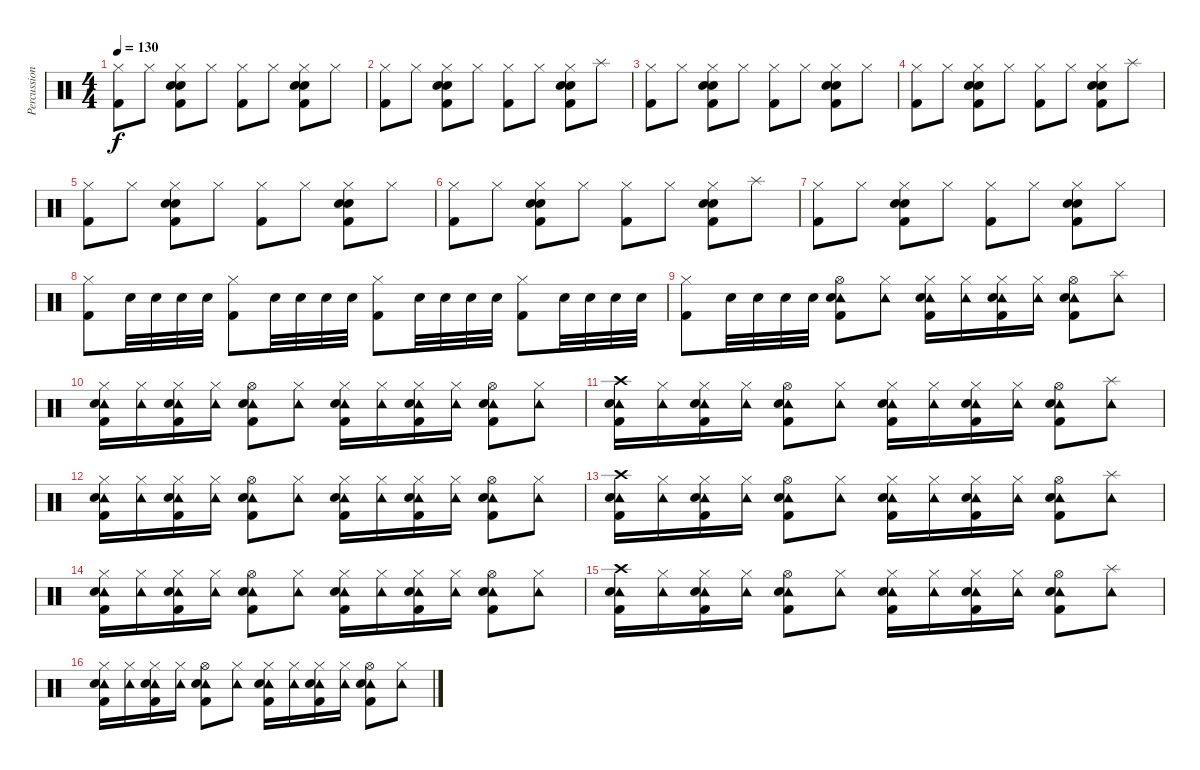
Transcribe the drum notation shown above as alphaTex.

\track ("Percussion" "Percussion") {instrument percussion}
\staff {score}
\articulation defaults
\ts (4 4)
\tempo 130
\clef neutral
\ks c
("Hi-Hat (closed)" "Kick (hit) 2").8{dy f volume 13} "Hi-Hat (closed)".8 ("Hi-Hat (closed)" "Electric Snare (hit)" "Electric Snare (hit)" "Kick (hit) 2").8 "Hi-Hat (closed)".8 ("Hi-Hat (closed)" "Kick (hit) 2").8 "Hi-Hat (closed)".8 ("Hi-Hat (closed)" "Electric Snare (hit)" "Electric Snare (hit)" "Kick (hit) 2").8 "Hi-Hat (closed)".8 |
("Hi-Hat (closed)" "Kick (hit) 2").8 "Hi-Hat (closed)".8 ("Hi-Hat (closed)" "Electric Snare (hit)" "Electric Snare (hit)" "Kick (hit) 2").8 "Hi-Hat (closed)".8 ("Hi-Hat (closed)" "Kick (hit) 2").8 "Hi-Hat (closed)".8 ("Hi-Hat (closed)" "Electric Snare (hit)" "Electric Snare (hit)" "Kick (hit) 2").8 "Splash (hit)".8 |
("Hi-Hat (closed)" "Kick (hit) 2").8 "Hi-Hat (closed)".8 ("Hi-Hat (closed)" "Electric Snare (hit)" "Electric Snare (hit)" "Kick (hit) 2").8 "Hi-Hat (closed)".8 ("Hi-Hat (closed)" "Kick (hit) 2").8 "Hi-Hat (closed)".8 ("Hi-Hat (closed)" "Electric Snare (hit)" "Electric Snare (hit)" "Kick (hit) 2").8 "Hi-Hat (closed)".8 |
("Hi-Hat (closed)" "Kick (hit) 2").8 "Hi-Hat (closed)".8 ("Hi-Hat (closed)" "Electric Snare (hit)" "Electric Snare (hit)" "Kick (hit) 2").8 "Hi-Hat (closed)".8 ("Hi-Hat (closed)" "Kick (hit) 2").8 "Hi-Hat (closed)".8 ("Hi-Hat (closed)" "Electric Snare (hit)" "Electric Snare (hit)" "Kick (hit) 2").8 "Splash (hit)".8 |
("Hi-Hat (closed)" "Kick (hit) 2").8 "Hi-Hat (closed)".8 ("Hi-Hat (closed)" "Electric Snare (hit)" "Electric Snare (hit)" "Kick (hit) 2").8 "Hi-Hat (closed)".8 ("Hi-Hat (closed)" "Kick (hit) 2").8 "Hi-Hat (closed)".8 ("Hi-Hat (closed)" "Electric Snare (hit)" "Electric Snare (hit)" "Kick (hit) 2").8 "Hi-Hat (closed)".8 |
("Hi-Hat (closed)" "Kick (hit) 2").8 "Hi-Hat (closed)".8 ("Hi-Hat (closed)" "Electric Snare (hit)" "Electric Snare (hit)" "Kick (hit) 2").8 "Hi-Hat (closed)".8 ("Hi-Hat (closed)" "Kick (hit) 2").8 "Hi-Hat (closed)".8 ("Hi-Hat (closed)" "Electric Snare (hit)" "Electric Snare (hit)" "Kick (hit) 2").8 "Splash (hit)".8 |
("Hi-Hat (closed)" "Kick (hit) 2").8 "Hi-Hat (closed)".8 ("Hi-Hat (closed)" "Electric Snare (hit)" "Electric Snare (hit)" "Kick (hit) 2").8 "Hi-Hat (closed)".8 ("Hi-Hat (closed)" "Kick (hit) 2").8 "Hi-Hat (closed)".8 ("Hi-Hat (closed)" "Electric Snare (hit)" "Electric Snare (hit)" "Kick (hit) 2").8 "Hi-Hat (closed)".8 |
("Hi-Hat (closed)" "Kick (hit) 2").8 "Snare (hit) 2".32 "Snare (hit) 2".32 "Snare (hit) 2".32 "Snare (hit) 2".32 ("Hi-Hat (closed)" "Kick (hit) 2").8 "Snare (hit) 2".32 "Snare (hit) 2".32 "Snare (hit) 2".32 "Snare (hit) 2".32 ("Hi-Hat (closed)" "Kick (hit) 2").8 "Snare (hit) 2".32 "Snare (hit) 2".32 "Snare (hit) 2".32 "Snare (hit) 2".32 ("Hi-Hat (closed)" "Kick (hit) 2").8 "Snare (hit) 2".32 "Snare (hit) 2".32 "Snare (hit) 2".32 "Snare (hit) 2".32 |
("Hi-Hat (closed)" "Kick (hit) 2").8 "Snare (hit) 2".32 "Snare (hit) 2".32 "Snare (hit) 2".32 "Snare (hit) 2".32 ("Hi-Hat (open)" "Tambourine (hit)" "Electric Snare (hit)" "Kick (hit) 2").8 ("Hi-Hat (closed)" "Tambourine (hit)").8 ("Hi-Hat (closed)" "Tambourine (hit)" "Electric Snare (hit)" "Kick (hit) 2").16 ("Hi-Hat (closed)" "Tambourine (hit)").16 ("Hi-Hat (closed)" "Tambourine (hit)" "Electric Snare (hit)" "Kick (hit) 2").16 ("Hi-Hat (closed)" "Tambourine (hit)").16 ("Hi-Hat (open)" "Tambourine (hit)" "Electric Snare (hit)" "Kick (hit) 2").8 ("Splash (hit)" "Tambourine (hit)").8 |
("Hi-Hat (closed)" "Tambourine (hit)" "Electric Snare (hit)" "Kick (hit) 2").16 ("Hi-Hat (closed)" "Tambourine (hit)").16 ("Hi-Hat (closed)" "Tambourine (hit)" "Electric Snare (hit)" "Kick (hit) 2").16 ("Hi-Hat (closed)" "Tambourine (hit)").16 ("Hi-Hat (open)" "Tambourine (hit)" "Electric Snare (hit)" "Kick (hit) 2").8 ("Hi-Hat (closed)" "Tambourine (hit)").8 ("Hi-Hat (closed)" "Tambourine (hit)" "Electric Snare (hit)" "Kick (hit) 2").16 ("Hi-Hat (closed)" "Tambourine (hit)").16 ("Hi-Hat (closed)" "Tambourine (hit)" "Electric Snare (hit)" "Kick (hit) 2").16 ("Hi-Hat (closed)" "Tambourine (hit)").16 ("Hi-Hat (open)" "Tambourine (hit)" "Electric Snare (hit)" "Kick (hit) 2").8 ("Hi-Hat (closed)" "Tambourine (hit)").8 |
("Crash high (hit)" "Tambourine (hit)" "Electric Snare (hit)" "Kick (hit) 2").16{volume 16} ("Hi-Hat (closed)" "Tambourine (hit)").16 ("Hi-Hat (closed)" "Tambourine (hit)" "Electric Snare (hit)" "Kick (hit) 2").16 ("Hi-Hat (closed)" "Tambourine (hit)").16 ("Hi-Hat (open)" "Tambourine (hit)" "Electric Snare (hit)" "Kick (hit) 2").8 ("Hi-Hat (closed)" "Tambourine (hit)").8 ("Hi-Hat (closed)" "Tambourine (hit)" "Electric Snare (hit)" "Kick (hit) 2").16 ("Hi-Hat (closed)" "Tambourine (hit)").16 ("Hi-Hat (closed)" "Tambourine (hit)" "Electric Snare (hit)" "Kick (hit) 2").16 ("Hi-Hat (closed)" "Tambourine (hit)").16 ("Hi-Hat (open)" "Tambourine (hit)" "Electric Snare (hit)" "Kick (hit) 2").8 ("Splash (hit)" "Tambourine (hit)").8 |
("Hi-Hat (closed)" "Tambourine (hit)" "Electric Snare (hit)" "Kick (hit) 2").16 ("Hi-Hat (closed)" "Tambourine (hit)").16 ("Hi-Hat (closed)" "Tambourine (hit)" "Electric Snare (hit)" "Kick (hit) 2").16 ("Hi-Hat (closed)" "Tambourine (hit)").16 ("Hi-Hat (open)" "Tambourine (hit)" "Electric Snare (hit)" "Kick (hit) 2").8 ("Hi-Hat (closed)" "Tambourine (hit)").8 ("Hi-Hat (closed)" "Tambourine (hit)" "Electric Snare (hit)" "Kick (hit) 2").16 ("Hi-Hat (closed)" "Tambourine (hit)").16 ("Hi-Hat (closed)" "Tambourine (hit)" "Electric Snare (hit)" "Kick (hit) 2").16 ("Hi-Hat (closed)" "Tambourine (hit)").16 ("Hi-Hat (open)" "Tambourine (hit)" "Electric Snare (hit)" "Kick (hit) 2").8 ("Hi-Hat (closed)" "Tambourine (hit)").8 |
("Crash high (hit)" "Tambourine (hit)" "Electric Snare (hit)" "Kick (hit) 2").16{volume 16} ("Hi-Hat (closed)" "Tambourine (hit)").16 ("Hi-Hat (closed)" "Tambourine (hit)" "Electric Snare (hit)" "Kick (hit) 2").16 ("Hi-Hat (closed)" "Tambourine (hit)").16 ("Hi-Hat (open)" "Tambourine (hit)" "Electric Snare (hit)" "Kick (hit) 2").8 ("Hi-Hat (closed)" "Tambourine (hit)").8 ("Hi-Hat (closed)" "Tambourine (hit)" "Electric Snare (hit)" "Kick (hit) 2").16 ("Hi-Hat (closed)" "Tambourine (hit)").16 ("Hi-Hat (closed)" "Tambourine (hit)" "Electric Snare (hit)" "Kick (hit) 2").16 ("Hi-Hat (closed)" "Tambourine (hit)").16 ("Hi-Hat (open)" "Tambourine (hit)" "Electric Snare (hit)" "Kick (hit) 2").8 ("Splash (hit)" "Tambourine (hit)").8 |
("Hi-Hat (closed)" "Tambourine (hit)" "Electric Snare (hit)" "Kick (hit) 2").16 ("Hi-Hat (closed)" "Tambourine (hit)").16 ("Hi-Hat (closed)" "Tambourine (hit)" "Electric Snare (hit)" "Kick (hit) 2").16 ("Hi-Hat (closed)" "Tambourine (hit)").16 ("Hi-Hat (open)" "Tambourine (hit)" "Electric Snare (hit)" "Kick (hit) 2").8 ("Hi-Hat (closed)" "Tambourine (hit)").8 ("Hi-Hat (closed)" "Tambourine (hit)" "Electric Snare (hit)" "Kick (hit) 2").16 ("Hi-Hat (closed)" "Tambourine (hit)").16 ("Hi-Hat (closed)" "Tambourine (hit)" "Electric Snare (hit)" "Kick (hit) 2").16 ("Hi-Hat (closed)" "Tambourine (hit)").16 ("Hi-Hat (open)" "Tambourine (hit)" "Electric Snare (hit)" "Kick (hit) 2").8 ("Hi-Hat (closed)" "Tambourine (hit)").8 |
("Crash high (hit)" "Tambourine (hit)" "Electric Snare (hit)" "Kick (hit) 2").16{volume 16} ("Hi-Hat (closed)" "Tambourine (hit)").16 ("Hi-Hat (closed)" "Tambourine (hit)" "Electric Snare (hit)" "Kick (hit) 2").16 ("Hi-Hat (closed)" "Tambourine (hit)").16 ("Hi-Hat (open)" "Tambourine (hit)" "Electric Snare (hit)" "Kick (hit) 2").8 ("Hi-Hat (closed)" "Tambourine (hit)").8 ("Hi-Hat (closed)" "Tambourine (hit)" "Electric Snare (hit)" "Kick (hit) 2").16 ("Hi-Hat (closed)" "Tambourine (hit)").16 ("Hi-Hat (closed)" "Tambourine (hit)" "Electric Snare (hit)" "Kick (hit) 2").16 ("Hi-Hat (closed)" "Tambourine (hit)").16 ("Hi-Hat (open)" "Tambourine (hit)" "Electric Snare (hit)" "Kick (hit) 2").8 ("Splash (hit)" "Tambourine (hit)").8 |
("Hi-Hat (closed)" "Tambourine (hit)" "Electric Snare (hit)" "Kick (hit) 2").16 ("Hi-Hat (closed)" "Tambourine (hit)").16 ("Hi-Hat (closed)" "Tambourine (hit)" "Electric Snare (hit)" "Kick (hit) 2").16 ("Hi-Hat (closed)" "Tambourine (hit)").16 ("Hi-Hat (open)" "Tambourine (hit)" "Electric Snare (hit)" "Kick (hit) 2").8 ("Hi-Hat (closed)" "Tambourine (hit)").8 ("Hi-Hat (closed)" "Tambourine (hit)" "Electric Snare (hit)" "Kick (hit) 2").16 ("Hi-Hat (closed)" "Tambourine (hit)").16 ("Hi-Hat (closed)" "Tambourine (hit)" "Electric Snare (hit)" "Kick (hit) 2").16 ("Hi-Hat (closed)" "Tambourine (hit)").16 ("Hi-Hat (open)" "Tambourine (hit)" "Electric Snare (hit)" "Kick (hit) 2").8 ("Hi-Hat (closed)" "Tambourine (hit)").8
